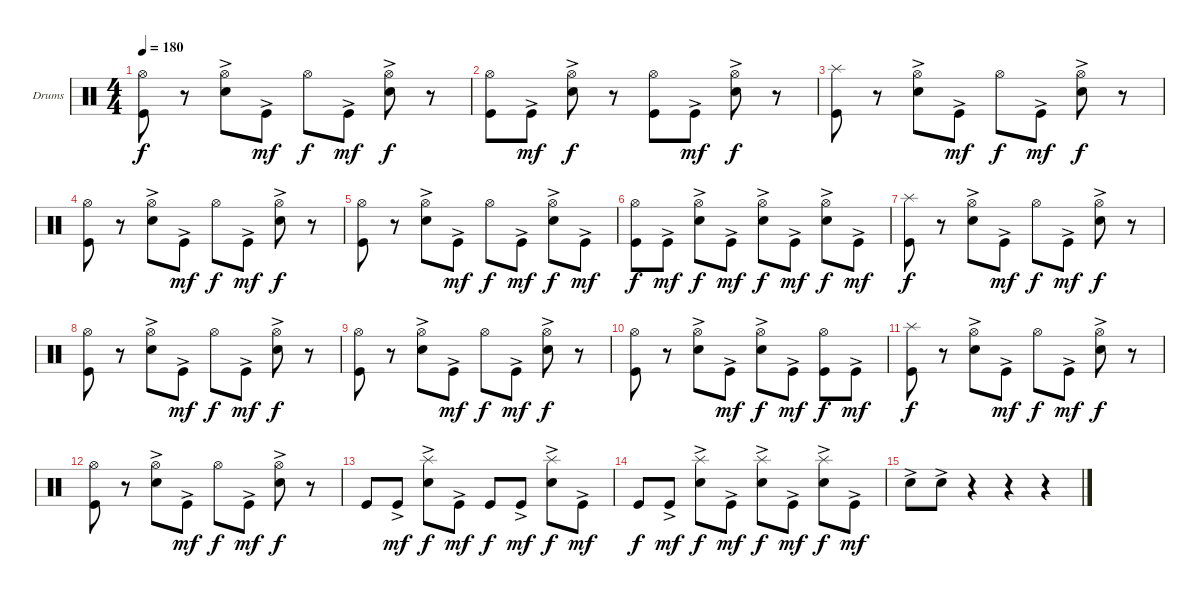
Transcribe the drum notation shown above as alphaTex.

\defaultSystemsLayout 4
\bracketExtendMode groupsimilarinstruments
\firstSystemTrackNameOrientation horizontal
\otherSystemsTrackNameOrientation horizontal
\track ("Drumkit" "Drums") {instrument percussion}
\staff {score}
\articulation defaults
\ts (4 4)
\tempo 180
\clef neutral
\ks c
("Kick (hit)" "Hi-Hat (open)").8{dy f} r.8 ("Snare (hit) 2"{ac} "Hi-Hat (open)").8 "Kick (hit)"{ac}.8{dy mf} "Hi-Hat (open)".8{dy f} "Kick (hit)"{ac}.8{dy mf} ("Snare (hit) 2"{ac} "Hi-Hat (open)").8{dy f} r.8 |
("Kick (hit)" "Hi-Hat (open)").8 "Kick (hit)"{ac}.8{dy mf} ("Snare (hit) 2"{ac} "Hi-Hat (open)").8{dy f} r.8 ("Kick (hit)" "Hi-Hat (open)").8 "Kick (hit)"{ac}.8{dy mf} ("Snare (hit) 2"{ac} "Hi-Hat (open)").8{dy f} r.8 |
("Kick (hit)" "Splash (hit)").8 r.8 ("Snare (hit) 2"{ac} "Hi-Hat (open)").8 "Kick (hit)"{ac}.8{dy mf} "Hi-Hat (open)".8{dy f} "Kick (hit)"{ac}.8{dy mf} ("Snare (hit) 2"{ac} "Hi-Hat (open)").8{dy f} r.8 |
("Kick (hit)" "Hi-Hat (open)").8 r.8 ("Snare (hit) 2"{ac} "Hi-Hat (open)").8 "Kick (hit)"{ac}.8{dy mf} "Hi-Hat (open)".8{dy f} "Kick (hit)"{ac}.8{dy mf} ("Snare (hit) 2"{ac} "Hi-Hat (open)").8{dy f} r.8 |
("Kick (hit)" "Hi-Hat (open)").8 r.8 ("Snare (hit) 2"{ac} "Hi-Hat (open)").8 "Kick (hit)"{ac}.8{dy mf} "Hi-Hat (open)".8{dy f} "Kick (hit)"{ac}.8{dy mf} ("Snare (hit) 2"{ac} "Hi-Hat (open)").8{dy f} "Kick (hit)"{ac}.8{dy mf} |
("Kick (hit)" "Hi-Hat (open)").8{dy f} "Kick (hit)"{ac}.8{dy mf} ("Snare (hit) 2"{ac} "Hi-Hat (open)").8{dy f} "Kick (hit)"{ac}.8{dy mf} ("Snare (hit) 2"{ac} "Hi-Hat (open)").8{dy f} "Kick (hit)"{ac}.8{dy mf} ("Snare (hit) 2"{ac} "Hi-Hat (open)").8{dy f} "Kick (hit)"{ac}.8{dy mf} |
("Kick (hit)" "Splash (hit)").8{dy f} r.8 ("Snare (hit) 2"{ac} "Hi-Hat (open)").8 "Kick (hit)"{ac}.8{dy mf} "Hi-Hat (open)".8{dy f} "Kick (hit)"{ac}.8{dy mf} ("Snare (hit) 2"{ac} "Hi-Hat (open)").8{dy f} r.8 |
("Kick (hit)" "Hi-Hat (open)").8 r.8 ("Snare (hit) 2"{ac} "Hi-Hat (open)").8 "Kick (hit)"{ac}.8{dy mf} "Hi-Hat (open)".8{dy f} "Kick (hit)"{ac}.8{dy mf} ("Snare (hit) 2"{ac} "Hi-Hat (open)").8{dy f} r.8 |
("Kick (hit)" "Hi-Hat (open)").8 r.8 ("Snare (hit) 2"{ac} "Hi-Hat (open)").8 "Kick (hit)"{ac}.8{dy mf} "Hi-Hat (open)".8{dy f} "Kick (hit)"{ac}.8{dy mf} ("Snare (hit) 2"{ac} "Hi-Hat (open)").8{dy f} r.8 |
("Kick (hit)" "Hi-Hat (open)").8 r.8 ("Snare (hit) 2"{ac} "Hi-Hat (open)").8 "Kick (hit)"{ac}.8{dy mf} ("Snare (hit) 2"{ac} "Hi-Hat (open)").8{dy f} "Kick (hit)"{ac}.8{dy mf} ("Kick (hit)" "Hi-Hat (open)").8{dy f} "Kick (hit)"{ac}.8{dy mf} |
("Kick (hit)" "Splash (hit)").8{dy f} r.8 ("Snare (hit) 2"{ac} "Hi-Hat (open)").8 "Kick (hit)"{ac}.8{dy mf} "Hi-Hat (open)".8{dy f} "Kick (hit)"{ac}.8{dy mf} ("Snare (hit) 2"{ac} "Hi-Hat (open)").8{dy f} r.8 |
("Kick (hit)" "Hi-Hat (open)").8 r.8 ("Snare (hit) 2"{ac} "Hi-Hat (open)").8 "Kick (hit)"{ac}.8{dy mf} "Hi-Hat (open)".8{dy f} "Kick (hit)"{ac}.8{dy mf} ("Snare (hit) 2"{ac} "Hi-Hat (open)").8{dy f} r.8 |
"Kick (hit)".8 "Kick (hit)"{ac}.8{dy mf} ("Snare (hit) 2"{ac} "Splash (hit)").8{dy f} "Kick (hit)"{ac}.8{dy mf} "Kick (hit)".8{dy f} "Kick (hit)"{ac}.8{dy mf} ("Snare (hit) 2"{ac} "Splash (hit)").8{dy f} "Kick (hit)"{ac}.8{dy mf} |
"Kick (hit)".8{dy f} "Kick (hit)"{ac}.8{dy mf} ("Snare (hit) 2"{ac} "Splash (hit)").8{dy f} "Kick (hit)"{ac}.8{dy mf} ("Snare (hit) 2"{ac} "Splash (hit)").8{dy f} "Kick (hit)"{ac}.8{dy mf} ("Snare (hit) 2"{ac} "Splash (hit)").8{dy f} "Kick (hit)"{ac}.8{dy mf} |
"Snare (hit) 2"{ac}.8 "Snare (hit) 2"{ac}.8 r.4 r.4 r.4
